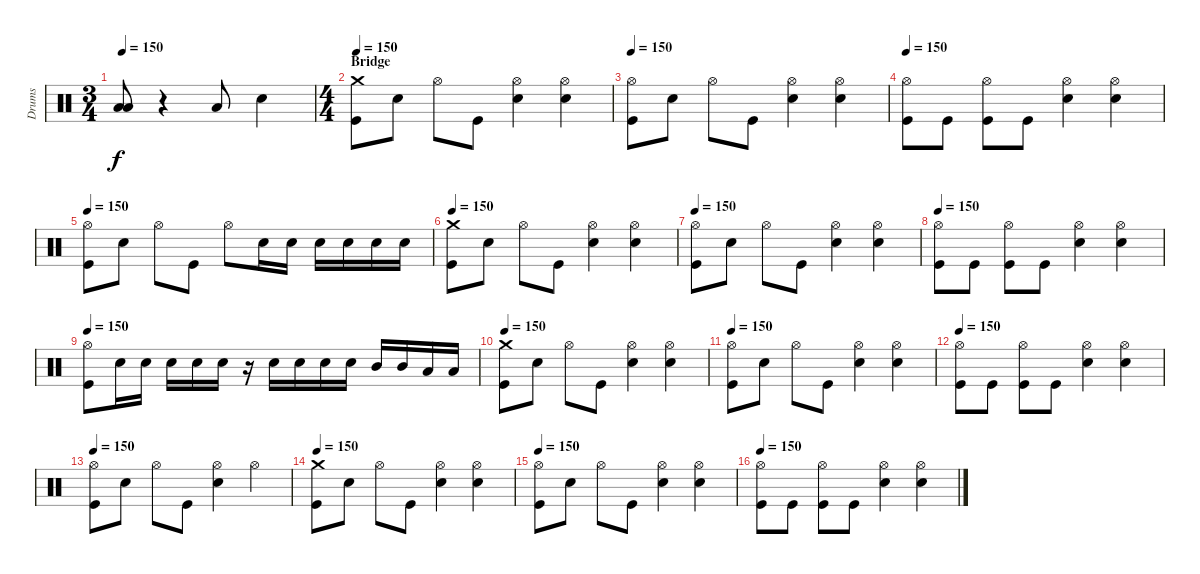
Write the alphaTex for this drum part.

\track ("Drums" "Drums") {instrument percussion}
\staff {score}
\articulation defaults
\ts (3 4)
\tempo 150
\clef neutral
\ks c
("Low Tom (hit)" "Low Tom (hit)").8{dy f} r.4 "Low Tom (hit)".8 "Electric Snare (hit)".4 |
\ts (4 4)
\section ("" "Bridge")
\tempo 150
("Crash medium (hit)" "Kick (hit)").8 "Electric Snare (hit)".8 "Hi-Hat (open)".8 "Kick (hit)".8 ("Hi-Hat (open)" "Electric Snare (hit)").4 ("Hi-Hat (open)" "Electric Snare (hit)").4 |
\tempo 150
("Hi-Hat (open)" "Kick (hit)").8 "Electric Snare (hit)".8 "Hi-Hat (open)".8 "Kick (hit)".8 ("Hi-Hat (open)" "Electric Snare (hit)").4 ("Hi-Hat (open)" "Electric Snare (hit)").4 |
\tempo 150
("Hi-Hat (open)" "Kick (hit)").8 "Kick (hit)".8 ("Hi-Hat (open)" "Kick (hit)").8 "Kick (hit)".8 ("Hi-Hat (open)" "Electric Snare (hit)").4 ("Hi-Hat (open)" "Electric Snare (hit)").4 |
\tempo 150
("Hi-Hat (open)" "Kick (hit)").8 "Electric Snare (hit)".8 "Hi-Hat (open)".8 "Kick (hit)".8 "Hi-Hat (open)".8 "Electric Snare (hit)".16 "Electric Snare (hit)".16 "Electric Snare (hit)".16 "Electric Snare (hit)".16 "Electric Snare (hit)".16 "Electric Snare (hit)".16 |
\tempo 150
("Crash medium (hit)" "Kick (hit)").8 "Electric Snare (hit)".8 "Hi-Hat (open)".8 "Kick (hit)".8 ("Hi-Hat (open)" "Electric Snare (hit)").4 ("Hi-Hat (open)" "Electric Snare (hit)").4 |
\tempo 150
("Hi-Hat (open)" "Kick (hit)").8 "Electric Snare (hit)".8 "Hi-Hat (open)".8 "Kick (hit)".8 ("Hi-Hat (open)" "Electric Snare (hit)").4 ("Hi-Hat (open)" "Electric Snare (hit)").4 |
\tempo 150
("Hi-Hat (open)" "Kick (hit)").8 "Kick (hit)".8 ("Hi-Hat (open)" "Kick (hit)").8 "Kick (hit)".8 ("Hi-Hat (open)" "Electric Snare (hit)").4 ("Hi-Hat (open)" "Electric Snare (hit)").4 |
\tempo 150
("Hi-Hat (open)" "Kick (hit)").8 "Electric Snare (hit)".16 "Electric Snare (hit)".16 "Electric Snare (hit)".16 "Electric Snare (hit)".16 "Electric Snare (hit)".16 r.16 "Electric Snare (hit)".16 "Electric Snare (hit)".16 "Electric Snare (hit)".16 "Electric Snare (hit)".16 "Mid Tom (hit)".16 "Mid Tom (hit)".16 "Low Tom (hit)".16 "Low Tom (hit)".16 |
\tempo 150
("Crash medium (hit)" "Kick (hit)").8 "Electric Snare (hit)".8 "Hi-Hat (open)".8 "Kick (hit)".8 ("Hi-Hat (open)" "Electric Snare (hit)").4 ("Hi-Hat (open)" "Electric Snare (hit)").4 |
\tempo 150
("Hi-Hat (open)" "Kick (hit)").8 "Electric Snare (hit)".8 "Hi-Hat (open)".8 "Kick (hit)".8 ("Hi-Hat (open)" "Electric Snare (hit)").4 ("Hi-Hat (open)" "Electric Snare (hit)").4 |
\tempo 150
("Hi-Hat (open)" "Kick (hit)").8 "Kick (hit)".8 ("Hi-Hat (open)" "Kick (hit)").8 "Kick (hit)".8 ("Hi-Hat (open)" "Electric Snare (hit)").4 ("Hi-Hat (open)" "Electric Snare (hit)").4 |
\tempo 150
("Hi-Hat (open)" "Kick (hit)").8 "Electric Snare (hit)".8 "Hi-Hat (open)".8 "Kick (hit)".8 ("Hi-Hat (open)" "Electric Snare (hit)").4 "Hi-Hat (open)".4 |
\tempo 150
("Crash medium (hit)" "Kick (hit)").8 "Electric Snare (hit)".8 "Hi-Hat (open)".8 "Kick (hit)".8 ("Hi-Hat (open)" "Electric Snare (hit)").4 ("Hi-Hat (open)" "Electric Snare (hit)").4 |
\tempo 150
("Hi-Hat (open)" "Kick (hit)").8 "Electric Snare (hit)".8 "Hi-Hat (open)".8 "Kick (hit)".8 ("Hi-Hat (open)" "Electric Snare (hit)").4 ("Hi-Hat (open)" "Electric Snare (hit)").4 |
\tempo 150
("Hi-Hat (open)" "Kick (hit)").8 "Kick (hit)".8 ("Hi-Hat (open)" "Kick (hit)").8 "Kick (hit)".8 ("Hi-Hat (open)" "Electric Snare (hit)").4 ("Hi-Hat (open)" "Electric Snare (hit)").4
